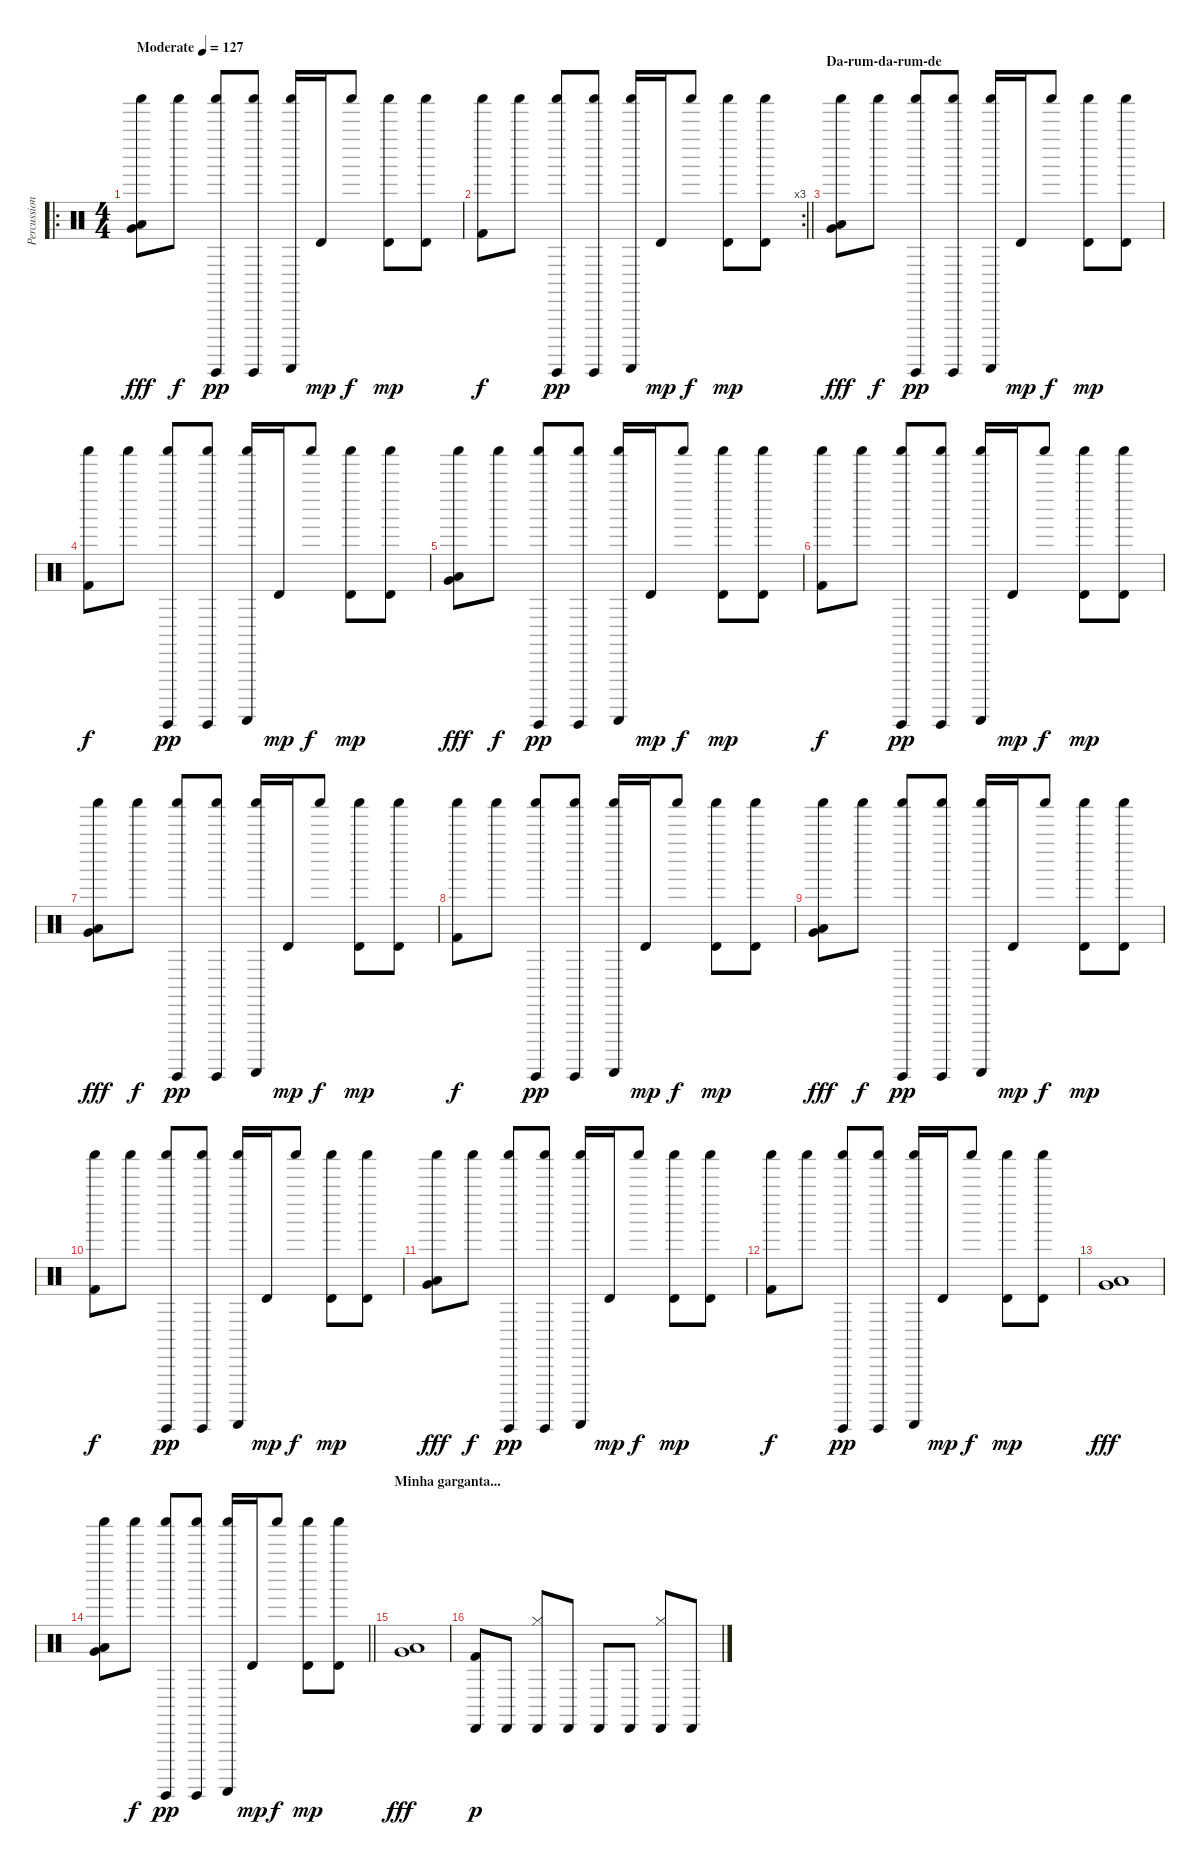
\track ("Percussion" "Percussion") {instrument percussion}
\staff {score}
\articulation defaults
\ro
\ts (4 4)
\tempo (127 "Moderate")
\clef neutral
\ks c
("Shaker (hit)" "Very Low Tom (hit)" "Low Floor Tom (hit)").8{dy fff} "Shaker (hit)".8{dy f} ("Shaker (hit)" "Guiro (hit)").8{dy pp} ("Shaker (hit)" "Guiro (hit)").8 ("Shaker (hit)" "Guiro (scrap-return)").16 "Timbale high (hit)".16{dy mp} "Shaker (hit)".8{dy f} ("Shaker (hit)" "Timbale high (hit)").8{dy mp} ("Shaker (hit)" "Timbale high (hit)").8 |
\rc 3
\barLineRight lightlight
("Shaker (hit)" "Kick (hit) 2").8{dy f} "Shaker (hit)".8 ("Shaker (hit)" "Guiro (hit)").8{dy pp} ("Shaker (hit)" "Guiro (hit)").8 ("Shaker (hit)" "Guiro (scrap-return)").16 "Timbale high (hit)".16{dy mp} "Shaker (hit)".8{dy f} ("Shaker (hit)" "Timbale high (hit)").8{dy mp} ("Shaker (hit)" "Timbale high (hit)").8 |
\section ("" "Da-rum-da-rum-de")
("Shaker (hit)" "Very Low Tom (hit)" "Low Floor Tom (hit)").8{dy fff} "Shaker (hit)".8{dy f} ("Shaker (hit)" "Guiro (hit)").8{dy pp} ("Shaker (hit)" "Guiro (hit)").8 ("Shaker (hit)" "Guiro (scrap-return)").16 "Timbale high (hit)".16{dy mp} "Shaker (hit)".8{dy f} ("Shaker (hit)" "Timbale high (hit)").8{dy mp} ("Shaker (hit)" "Timbale high (hit)").8 |
("Shaker (hit)" "Kick (hit) 2").8{dy f} "Shaker (hit)".8 ("Shaker (hit)" "Guiro (hit)").8{dy pp} ("Shaker (hit)" "Guiro (hit)").8 ("Shaker (hit)" "Guiro (scrap-return)").16 "Timbale high (hit)".16{dy mp} "Shaker (hit)".8{dy f} ("Shaker (hit)" "Timbale high (hit)").8{dy mp} ("Shaker (hit)" "Timbale high (hit)").8 |
("Shaker (hit)" "Very Low Tom (hit)" "Low Floor Tom (hit)").8{dy fff} "Shaker (hit)".8{dy f} ("Shaker (hit)" "Guiro (hit)").8{dy pp} ("Shaker (hit)" "Guiro (hit)").8 ("Shaker (hit)" "Guiro (scrap-return)").16 "Timbale high (hit)".16{dy mp} "Shaker (hit)".8{dy f} ("Shaker (hit)" "Timbale high (hit)").8{dy mp} ("Shaker (hit)" "Timbale high (hit)").8 |
("Shaker (hit)" "Kick (hit) 2").8{dy f} "Shaker (hit)".8 ("Shaker (hit)" "Guiro (hit)").8{dy pp} ("Shaker (hit)" "Guiro (hit)").8 ("Shaker (hit)" "Guiro (scrap-return)").16 "Timbale high (hit)".16{dy mp} "Shaker (hit)".8{dy f} ("Shaker (hit)" "Timbale high (hit)").8{dy mp} ("Shaker (hit)" "Timbale high (hit)").8 |
("Shaker (hit)" "Very Low Tom (hit)" "Low Floor Tom (hit)").8{dy fff} "Shaker (hit)".8{dy f} ("Shaker (hit)" "Guiro (hit)").8{dy pp} ("Shaker (hit)" "Guiro (hit)").8 ("Shaker (hit)" "Guiro (scrap-return)").16 "Timbale high (hit)".16{dy mp} "Shaker (hit)".8{dy f} ("Shaker (hit)" "Timbale high (hit)").8{dy mp} ("Shaker (hit)" "Timbale high (hit)").8 |
("Shaker (hit)" "Kick (hit) 2").8{dy f} "Shaker (hit)".8 ("Shaker (hit)" "Guiro (hit)").8{dy pp} ("Shaker (hit)" "Guiro (hit)").8 ("Shaker (hit)" "Guiro (scrap-return)").16 "Timbale high (hit)".16{dy mp} "Shaker (hit)".8{dy f} ("Shaker (hit)" "Timbale high (hit)").8{dy mp} ("Shaker (hit)" "Timbale high (hit)").8 |
("Shaker (hit)" "Very Low Tom (hit)" "Low Floor Tom (hit)").8{dy fff} "Shaker (hit)".8{dy f} ("Shaker (hit)" "Guiro (hit)").8{dy pp} ("Shaker (hit)" "Guiro (hit)").8 ("Shaker (hit)" "Guiro (scrap-return)").16 "Timbale high (hit)".16{dy mp} "Shaker (hit)".8{dy f} ("Shaker (hit)" "Timbale high (hit)").8{dy mp} ("Shaker (hit)" "Timbale high (hit)").8 |
("Shaker (hit)" "Kick (hit) 2").8{dy f} "Shaker (hit)".8 ("Shaker (hit)" "Guiro (hit)").8{dy pp} ("Shaker (hit)" "Guiro (hit)").8 ("Shaker (hit)" "Guiro (scrap-return)").16 "Timbale high (hit)".16{dy mp} "Shaker (hit)".8{dy f} ("Shaker (hit)" "Timbale high (hit)").8{dy mp} ("Shaker (hit)" "Timbale high (hit)").8 |
("Shaker (hit)" "Very Low Tom (hit)" "Low Floor Tom (hit)").8{dy fff} "Shaker (hit)".8{dy f} ("Shaker (hit)" "Guiro (hit)").8{dy pp} ("Shaker (hit)" "Guiro (hit)").8 ("Shaker (hit)" "Guiro (scrap-return)").16 "Timbale high (hit)".16{dy mp} "Shaker (hit)".8{dy f} ("Shaker (hit)" "Timbale high (hit)").8{dy mp} ("Shaker (hit)" "Timbale high (hit)").8 |
("Shaker (hit)" "Kick (hit) 2").8{dy f} "Shaker (hit)".8 ("Shaker (hit)" "Guiro (hit)").8{dy pp} ("Shaker (hit)" "Guiro (hit)").8 ("Shaker (hit)" "Guiro (scrap-return)").16 "Timbale high (hit)".16{dy mp} "Shaker (hit)".8{dy f} ("Shaker (hit)" "Timbale high (hit)").8{dy mp} ("Shaker (hit)" "Timbale high (hit)").8 |
("Very Low Tom (hit)" "Low Floor Tom (hit)").1{dy fff} |
\barLineRight lightlight
("Shaker (hit)" "Very Low Tom (hit)" "Low Floor Tom (hit)").8 "Shaker (hit)".8{dy f} ("Shaker (hit)" "Guiro (hit)").8{dy pp} ("Shaker (hit)" "Guiro (hit)").8 ("Shaker (hit)" "Guiro (scrap-return)").16 "Timbale high (hit)".16{dy mp} "Shaker (hit)".8{dy f} ("Shaker (hit)" "Timbale high (hit)").8{dy mp} ("Shaker (hit)" "Timbale high (hit)").8 |
\section ("" "Minha garganta...")
("Very Low Tom (hit)" "Low Floor Tom (hit)").1{dy fff} |
("Cabasa (hit)" "Kick (hit) 2").8{dy p} "Cabasa (hit)".8 ("Cabasa (hit)" "Hi-Hat (closed)").8 "Cabasa (hit)".8 "Cabasa (hit)".8 "Cabasa (hit)".8 ("Cabasa (hit)" "Hi-Hat (closed)").8 "Cabasa (hit)".8
